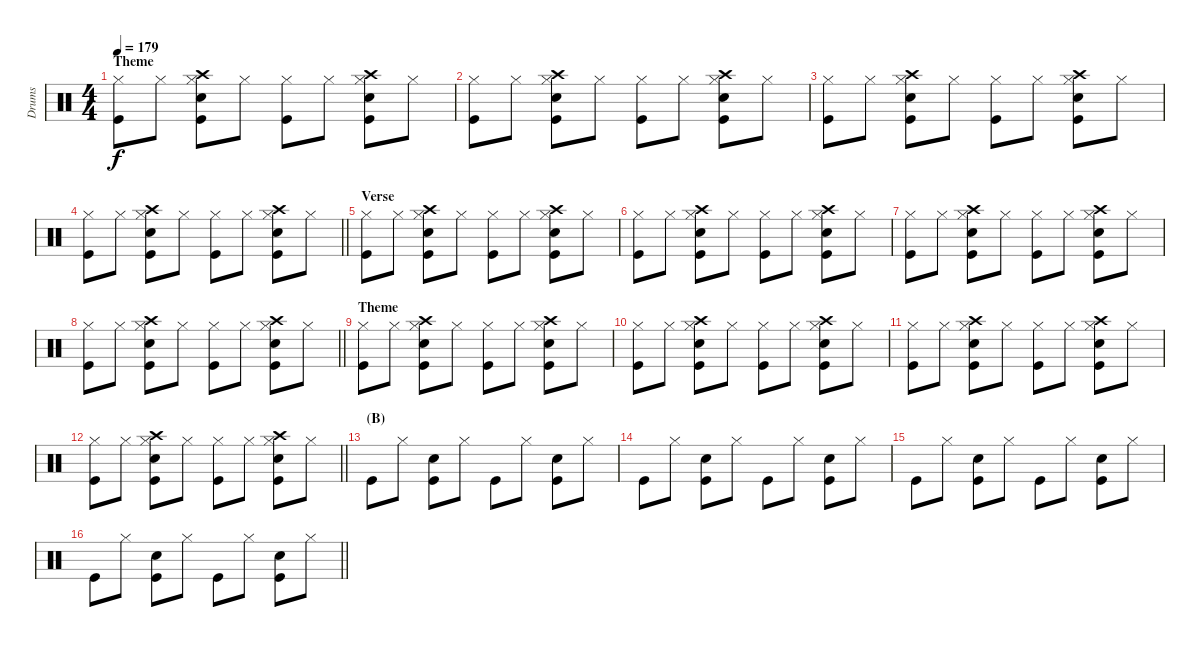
\track ("Drums" "Drums") {instrument percussion}
\staff {score}
\articulation defaults
\ts (4 4)
\section ("" "Theme")
\tempo 179
\clef neutral
\ks c
("Hi-Hat (closed)" "Kick (hit)").8{dy f} "Hi-Hat (closed)".8 ("Crash high (hit)" "Hi-Hat (closed)" "Snare (hit) 2" "Kick (hit)").8 "Hi-Hat (closed)".8 ("Hi-Hat (closed)" "Kick (hit)").8 "Hi-Hat (closed)".8 ("Crash high (hit)" "Hi-Hat (closed)" "Snare (hit) 2" "Kick (hit)").8 "Hi-Hat (closed)".8 |
("Hi-Hat (closed)" "Kick (hit)").8 "Hi-Hat (closed)".8 ("Crash high (hit)" "Hi-Hat (closed)" "Snare (hit) 2" "Kick (hit)").8 "Hi-Hat (closed)".8 ("Hi-Hat (closed)" "Kick (hit)").8 "Hi-Hat (closed)".8 ("Crash high (hit)" "Hi-Hat (closed)" "Snare (hit) 2" "Kick (hit)").8 "Hi-Hat (closed)".8 |
("Hi-Hat (closed)" "Kick (hit)").8 "Hi-Hat (closed)".8 ("Crash high (hit)" "Hi-Hat (closed)" "Snare (hit) 2" "Kick (hit)").8 "Hi-Hat (closed)".8 ("Hi-Hat (closed)" "Kick (hit)").8 "Hi-Hat (closed)".8 ("Crash high (hit)" "Hi-Hat (closed)" "Snare (hit) 2" "Kick (hit)").8 "Hi-Hat (closed)".8 |
\barLineRight lightlight
("Hi-Hat (closed)" "Kick (hit)").8 "Hi-Hat (closed)".8 ("Crash high (hit)" "Hi-Hat (closed)" "Snare (hit) 2" "Kick (hit)").8 "Hi-Hat (closed)".8 ("Hi-Hat (closed)" "Kick (hit)").8 "Hi-Hat (closed)".8 ("Crash high (hit)" "Hi-Hat (closed)" "Snare (hit) 2" "Kick (hit)").8 "Hi-Hat (closed)".8 |
\section ("" "Verse")
("Hi-Hat (closed)" "Kick (hit)").8 "Hi-Hat (closed)".8 ("Crash high (hit)" "Hi-Hat (closed)" "Snare (hit) 2" "Kick (hit)").8 "Hi-Hat (closed)".8 ("Hi-Hat (closed)" "Kick (hit)").8 "Hi-Hat (closed)".8 ("Crash high (hit)" "Hi-Hat (closed)" "Snare (hit) 2" "Kick (hit)").8 "Hi-Hat (closed)".8 |
("Hi-Hat (closed)" "Kick (hit)").8 "Hi-Hat (closed)".8 ("Crash high (hit)" "Hi-Hat (closed)" "Snare (hit) 2" "Kick (hit)").8 "Hi-Hat (closed)".8 ("Hi-Hat (closed)" "Kick (hit)").8 "Hi-Hat (closed)".8 ("Crash high (hit)" "Hi-Hat (closed)" "Snare (hit) 2" "Kick (hit)").8 "Hi-Hat (closed)".8 |
("Hi-Hat (closed)" "Kick (hit)").8 "Hi-Hat (closed)".8 ("Crash high (hit)" "Hi-Hat (closed)" "Snare (hit) 2" "Kick (hit)").8 "Hi-Hat (closed)".8 ("Hi-Hat (closed)" "Kick (hit)").8 "Hi-Hat (closed)".8 ("Crash high (hit)" "Hi-Hat (closed)" "Snare (hit) 2" "Kick (hit)").8 "Hi-Hat (closed)".8 |
\barLineRight lightlight
("Hi-Hat (closed)" "Kick (hit)").8 "Hi-Hat (closed)".8 ("Crash high (hit)" "Hi-Hat (closed)" "Snare (hit) 2" "Kick (hit)").8 "Hi-Hat (closed)".8 ("Hi-Hat (closed)" "Kick (hit)").8 "Hi-Hat (closed)".8 ("Crash high (hit)" "Hi-Hat (closed)" "Snare (hit) 2" "Kick (hit)").8 "Hi-Hat (closed)".8 |
\section ("" "Theme")
("Hi-Hat (closed)" "Kick (hit)").8 "Hi-Hat (closed)".8 ("Crash high (hit)" "Hi-Hat (closed)" "Snare (hit) 2" "Kick (hit)").8 "Hi-Hat (closed)".8 ("Hi-Hat (closed)" "Kick (hit)").8 "Hi-Hat (closed)".8 ("Crash high (hit)" "Hi-Hat (closed)" "Snare (hit) 2" "Kick (hit)").8 "Hi-Hat (closed)".8 |
("Hi-Hat (closed)" "Kick (hit)").8 "Hi-Hat (closed)".8 ("Crash high (hit)" "Hi-Hat (closed)" "Snare (hit) 2" "Kick (hit)").8 "Hi-Hat (closed)".8 ("Hi-Hat (closed)" "Kick (hit)").8 "Hi-Hat (closed)".8 ("Crash high (hit)" "Hi-Hat (closed)" "Snare (hit) 2" "Kick (hit)").8 "Hi-Hat (closed)".8 |
("Hi-Hat (closed)" "Kick (hit)").8 "Hi-Hat (closed)".8 ("Crash high (hit)" "Hi-Hat (closed)" "Snare (hit) 2" "Kick (hit)").8 "Hi-Hat (closed)".8 ("Hi-Hat (closed)" "Kick (hit)").8 "Hi-Hat (closed)".8 ("Crash high (hit)" "Hi-Hat (closed)" "Snare (hit) 2" "Kick (hit)").8 "Hi-Hat (closed)".8 |
\barLineRight lightlight
("Hi-Hat (closed)" "Kick (hit)").8 "Hi-Hat (closed)".8 ("Crash high (hit)" "Hi-Hat (closed)" "Snare (hit) 2" "Kick (hit)").8 "Hi-Hat (closed)".8 ("Hi-Hat (closed)" "Kick (hit)").8 "Hi-Hat (closed)".8 ("Crash high (hit)" "Hi-Hat (closed)" "Snare (hit) 2" "Kick (hit)").8 "Hi-Hat (closed)".8 |
\section ("" "(B)")
"Kick (hit)".8 "Hi-Hat (closed)".8 ("Snare (hit) 2" "Kick (hit)").8 "Hi-Hat (closed)".8 "Kick (hit)".8 "Hi-Hat (closed)".8 ("Snare (hit) 2" "Kick (hit)").8 "Hi-Hat (closed)".8 |
"Kick (hit)".8 "Hi-Hat (closed)".8 ("Snare (hit) 2" "Kick (hit)").8 "Hi-Hat (closed)".8 "Kick (hit)".8 "Hi-Hat (closed)".8 ("Snare (hit) 2" "Kick (hit)").8 "Hi-Hat (closed)".8 |
"Kick (hit)".8 "Hi-Hat (closed)".8 ("Snare (hit) 2" "Kick (hit)").8 "Hi-Hat (closed)".8 "Kick (hit)".8 "Hi-Hat (closed)".8 ("Snare (hit) 2" "Kick (hit)").8 "Hi-Hat (closed)".8 |
\barLineRight lightlight "Kick (hit)".8 "Hi-Hat (closed)".8
("Snare (hit) 2" "Kick (hit)").8 "Hi-Hat (closed)".8 "Kick (hit)".8 "Hi-Hat (closed)".8 ("Snare (hit) 2" "Kick (hit)").8 "Hi-Hat (closed)".8
